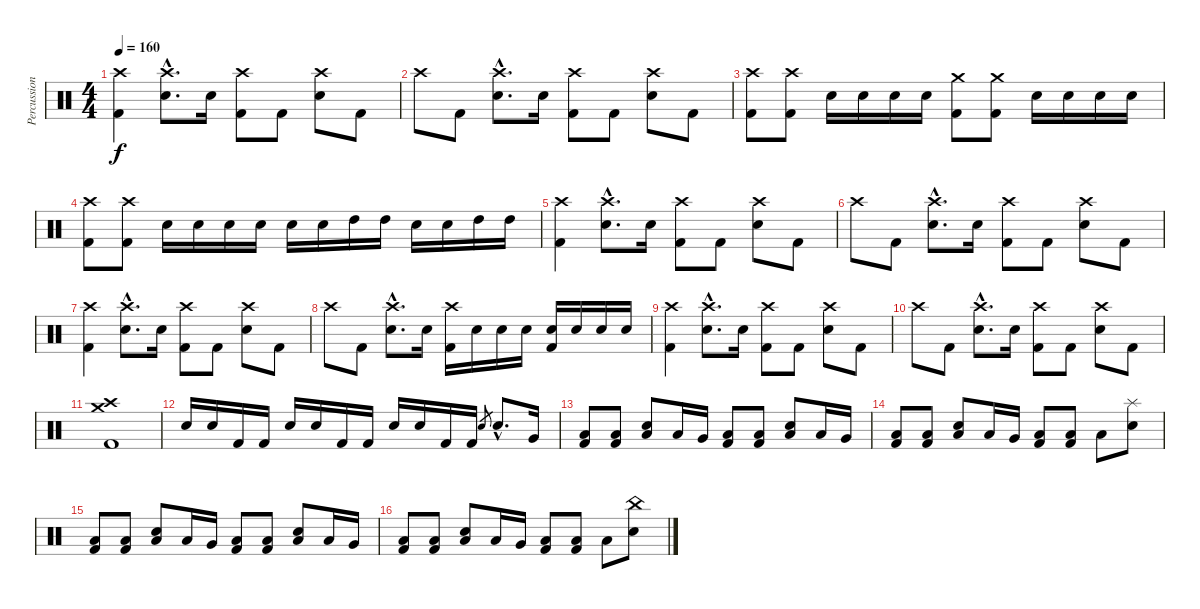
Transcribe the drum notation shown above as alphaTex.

\track ("Percussion" "Percussion") {instrument percussion}
\staff {score}
\articulation defaults
\ts (4 4)
\tempo 160
\clef neutral
\ks c
("Crash high (hit)" "Kick (hit) 2").4{dy f} ("Crash high (hit)"{hac} "Electric Snare (hit)"{hac}).8{d} "Electric Snare (hit)".16 ("Crash high (hit)" "Kick (hit) 2").8 "Kick (hit) 2".8 ("Crash high (hit)" "Electric Snare (hit)").8 "Kick (hit) 2".8 |
"Crash high (hit)".8 "Kick (hit) 2".8 ("Crash high (hit)"{hac} "Electric Snare (hit)"{hac}).8{d} "Electric Snare (hit)".16 ("Crash high (hit)" "Kick (hit) 2").8 "Kick (hit) 2".8 ("Crash high (hit)" "Electric Snare (hit)").8 "Kick (hit) 2".8 |
("Crash high (hit)" "Kick (hit) 2").8 ("Crash high (hit)" "Kick (hit) 2").8 "Electric Snare (hit)".16 "Electric Snare (hit)".16 "Electric Snare (hit)".16 "Electric Snare (hit)".16 ("Crash medium (hit)" "Kick (hit) 2").8 ("Crash medium (hit)" "Kick (hit) 2").8 "Electric Snare (hit)".16 "Electric Snare (hit)".16 "Electric Snare (hit)".16 "Electric Snare (hit)".16 |
("Crash high (hit)" "Kick (hit) 2").8 ("Crash high (hit)" "Kick (hit) 2").8 "Electric Snare (hit)".16 "Electric Snare (hit)".16 "Electric Snare (hit)".16 "Electric Snare (hit)".16 "Electric Snare (hit)".16 "Electric Snare (hit)".16 "High Tom (hit)".16 "High Tom (hit)".16 "Electric Snare (hit)".16 "Electric Snare (hit)".16 "High Tom (hit)".16 "High Tom (hit)".16 |
("Crash high (hit)" "Kick (hit) 2").4 ("Crash high (hit)"{hac} "Electric Snare (hit)"{hac}).8{d} "Electric Snare (hit)".16 ("Crash high (hit)" "Kick (hit) 2").8 "Kick (hit) 2".8 ("Crash high (hit)" "Electric Snare (hit)").8 "Kick (hit) 2".8 |
"Crash high (hit)".8 "Kick (hit) 2".8 ("Crash high (hit)"{hac} "Electric Snare (hit)"{hac}).8{d} "Electric Snare (hit)".16 ("Crash high (hit)" "Kick (hit) 2").8 "Kick (hit) 2".8 ("Crash high (hit)" "Electric Snare (hit)").8 "Kick (hit) 2".8 |
("Crash high (hit)" "Kick (hit) 2").4 ("Crash high (hit)"{hac} "Electric Snare (hit)"{hac}).8{d} "Electric Snare (hit)".16 ("Crash high (hit)" "Kick (hit) 2").8 "Kick (hit) 2".8 ("Crash high (hit)" "Electric Snare (hit)").8 "Kick (hit) 2".8 |
"Crash high (hit)".8 "Kick (hit) 2".8 ("Crash high (hit)"{hac} "Electric Snare (hit)"{hac}).8{d} "Electric Snare (hit)".16 ("Crash high (hit)" "Kick (hit) 2").16 "Electric Snare (hit)".16 "Electric Snare (hit)".16 "Electric Snare (hit)".16 ("Electric Snare (hit)" "Kick (hit) 2").16 "Electric Snare (hit)".16 "Electric Snare (hit)".16 "Electric Snare (hit)".16 |
("Crash high (hit)" "Kick (hit) 2").4 ("Crash high (hit)"{hac} "Electric Snare (hit)"{hac}).8{d} "Electric Snare (hit)".16 ("Crash high (hit)" "Kick (hit) 2").8 "Kick (hit) 2".8 ("Crash high (hit)" "Electric Snare (hit)").8 "Kick (hit) 2".8 |
"Crash high (hit)".8 "Kick (hit) 2".8 ("Crash high (hit)"{hac} "Electric Snare (hit)"{hac}).8{d} "Electric Snare (hit)".16 ("Crash high (hit)" "Kick (hit) 2").8 "Kick (hit) 2".8 ("Crash high (hit)" "Electric Snare (hit)").8 "Kick (hit) 2".8 |
("Crash high (hit)" "Crash medium (hit)" "Kick (hit) 2").1 |
"Electric Snare (hit)".16 "Electric Snare (hit)".16 "Kick (hit) 2".16 "Kick (hit) 2".16 "Electric Snare (hit)".16 "Electric Snare (hit)".16 "Kick (hit) 2".16 "Kick (hit) 2".16 "Electric Snare (hit)".16 "Electric Snare (hit)".16 "Kick (hit) 2".16 "Kick (hit) 2".16 "Electric Snare (hit)".8{gr} "Electric Snare (hit)"{hac}.8{d} "Very Low Tom (hit)".16 |
("Low Floor Tom (hit)" "Kick (hit) 2").8 ("Low Floor Tom (hit)" "Kick (hit) 2").8 ("Electric Snare (hit)" "Low Floor Tom (hit)").8 "Low Floor Tom (hit)".16 "Very Low Tom (hit)".16 ("Low Floor Tom (hit)" "Kick (hit) 2").8 ("Low Floor Tom (hit)" "Kick (hit) 2").8 ("Electric Snare (hit)" "Low Floor Tom (hit)").8 "Low Floor Tom (hit)".16 "Very Low Tom (hit)".16 |
("Low Floor Tom (hit)" "Kick (hit) 2").8 ("Low Floor Tom (hit)" "Kick (hit) 2").8 ("Electric Snare (hit)" "Low Floor Tom (hit)").8 "Low Floor Tom (hit)".16 "Very Low Tom (hit)".16 ("Low Floor Tom (hit)" "Kick (hit) 2").8 ("Low Floor Tom (hit)" "Kick (hit) 2").8 "Low Floor Tom (hit)".8 ("Splash (hit)" "Electric Snare (hit)").8 |
("Low Floor Tom (hit)" "Kick (hit) 2").8 ("Low Floor Tom (hit)" "Kick (hit) 2").8 ("Electric Snare (hit)" "Low Floor Tom (hit)").8 "Low Floor Tom (hit)".16 "Very Low Tom (hit)".16 ("Low Floor Tom (hit)" "Kick (hit) 2").8 ("Low Floor Tom (hit)" "Kick (hit) 2").8 ("Electric Snare (hit)" "Low Floor Tom (hit)").8 "Low Floor Tom (hit)".16 "Very Low Tom (hit)".16 |
("Low Floor Tom (hit)" "Kick (hit) 2").8 ("Low Floor Tom (hit)" "Kick (hit) 2").8 ("Electric Snare (hit)" "Low Floor Tom (hit)").8 "Low Floor Tom (hit)".16 "Very Low Tom (hit)".16 ("Low Floor Tom (hit)" "Kick (hit) 2").8 ("Low Floor Tom (hit)" "Kick (hit) 2").8 "Low Floor Tom (hit)".8 ("China (hit)" "Electric Snare (hit)").8
